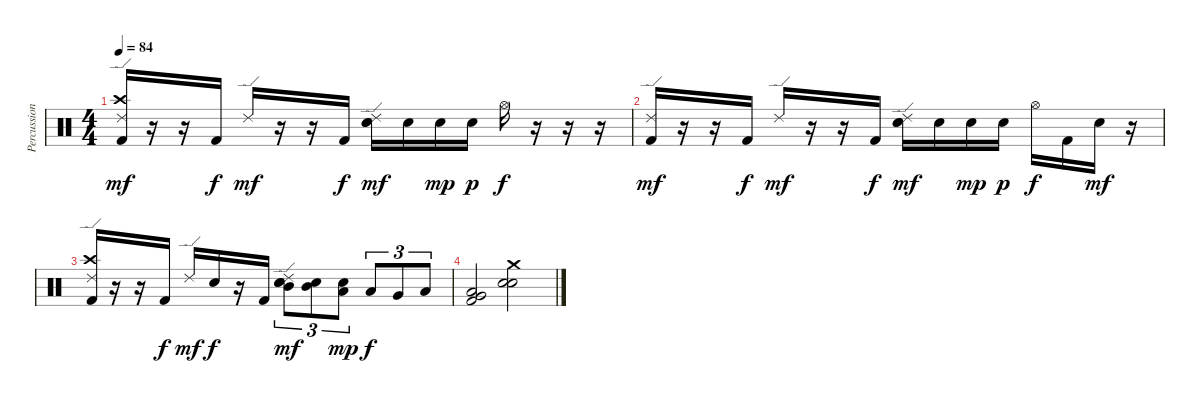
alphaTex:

\track ("Percussion" "Percussion") {instrument percussion}
\staff {score}
\articulation defaults
\ts (4 4)
\tempo 84
\clef neutral
\ks c
("Ride (edge) 2" "Crash high (hit)" "Kick (hit) 2").16{dy mf} r.16 r.16 "Kick (hit) 2".16{dy f} "Ride (edge) 2".16{dy mf} r.16 r.16 "Kick (hit) 2".16{dy f} ("Ride (edge) 2" "Snare (hit) 2" "Electric Snare (hit)").16{dy mf} "Electric Snare (hit)".16 "Electric Snare (hit)".16{dy mp} "Electric Snare (hit)".16{dy p} "Hi-Hat (open)".16{dy f} r.16 r.16 r.16 |
("Ride (edge) 2" "Kick (hit) 2").16{dy mf} r.16 r.16 "Kick (hit) 2".16{dy f} "Ride (edge) 2".16{dy mf} r.16 r.16 "Kick (hit) 2".16{dy f} ("Ride (edge) 2" "Snare (hit) 2" "Electric Snare (hit)").16{dy mf} "Electric Snare (hit)".16 "Electric Snare (hit)".16{dy mp} "Electric Snare (hit)".16{dy p} "Hi-Hat (open)".16{dy f} "Kick (hit) 2".16 "Electric Snare (hit)".16{dy mf} r.16 |
("Ride (edge) 2" "Crash high (hit)" "Kick (hit) 2").16 r.16 r.16 "Kick (hit) 2".16{dy f} "Ride (edge) 2".16{dy mf} "Electric Snare (hit)".16{dy f} r.16 "Kick (hit) 2".16 ("Ride (edge) 2" "Mid Tom (hit)" "Snare (hit) 2" "Electric Snare (hit)").8{tu (3 2) dy mf} ("Mid Tom (hit)" "Electric Snare (hit)").8{tu (3 2)} ("Low Tom (hit)" "Electric Snare (hit)").8{tu (3 2) dy mp} "Low Tom (hit)".8{tu (3 2) dy f} "Very Low Tom (hit)".8{tu (3 2)} "Low Floor Tom (hit)".8{tu (3 2)} |
("Very Low Tom (hit)" "Low Floor Tom (hit)" "Kick (hit) 2").2 ("Crash medium (hit)" "Snare (hit) 2" "Electric Snare (hit)").2
